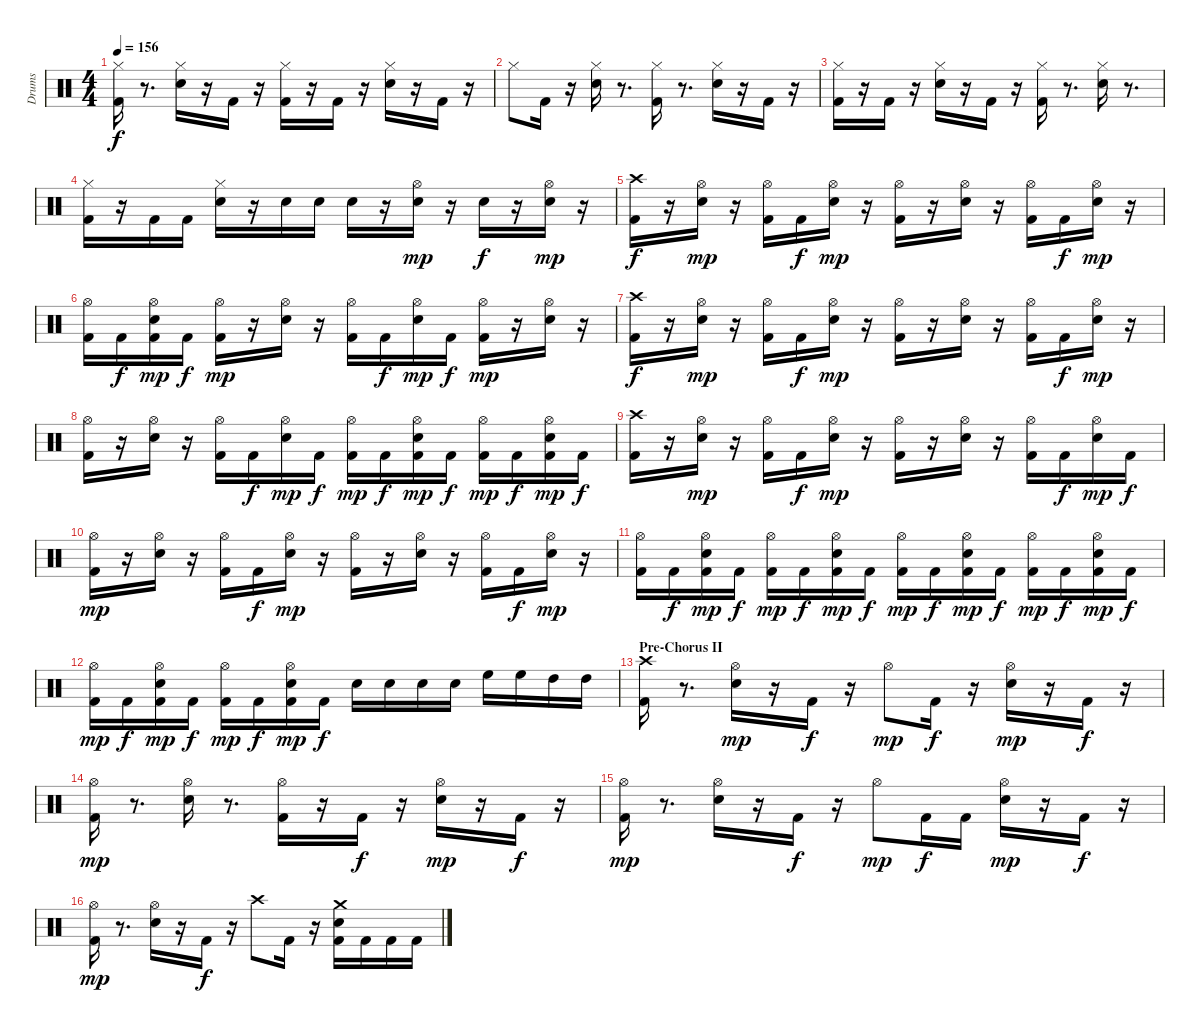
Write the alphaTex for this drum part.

\track ("Drums" "Drums") {instrument percussion}
\staff {score}
\articulation defaults
\ts (4 4)
\tempo 156
\clef neutral
\ks c
("Kick (hit) 2" "Hi-Hat (closed)").16{dy f} r.8{d} ("Snare (hit) 2" "Hi-Hat (closed)").16 r.16 "Kick (hit) 2".16 r.16 ("Kick (hit) 2" "Hi-Hat (closed)").16 r.16 "Kick (hit) 2".16 r.16 ("Snare (hit) 2" "Hi-Hat (closed)").16 r.16 "Kick (hit) 2".16 r.16 |
"Hi-Hat (closed)".8 "Kick (hit) 2".16 r.16 ("Snare (hit) 2" "Hi-Hat (closed)").16 r.8{d} ("Kick (hit) 2" "Hi-Hat (closed)").16 r.8{d} ("Snare (hit) 2" "Hi-Hat (closed)").16 r.16 "Kick (hit) 2".16 r.16 |
("Kick (hit) 2" "Hi-Hat (closed)").16 r.16 "Kick (hit) 2".16 r.16 ("Snare (hit) 2" "Hi-Hat (closed)").16 r.16 "Kick (hit) 2".16 r.16 ("Kick (hit) 2" "Hi-Hat (closed)").16 r.8{d} ("Snare (hit) 2" "Hi-Hat (closed)").16 r.8{d} |
("Kick (hit) 2" "Hi-Hat (closed)").16 r.16 "Kick (hit) 2".16 "Kick (hit) 2".16 ("Snare (hit) 2" "Hi-Hat (closed)").16 r.16 "Snare (hit) 2".16 "Snare (hit) 2".16 "Snare (hit) 2".16 r.16 ("Snare (hit) 2" "Hi-Hat (open)").16{dy mp} r.16 "Snare (hit) 2".16{dy f} r.16 ("Snare (hit) 2" "Hi-Hat (open)").16{dy mp} r.16 |
("Kick (hit) 2" "Crash high (hit)").16{dy f} r.16 ("Snare (hit) 2" "Hi-Hat (open)").16{dy mp} r.16 ("Kick (hit) 2" "Hi-Hat (open)").16 "Kick (hit) 2".16{dy f} ("Snare (hit) 2" "Hi-Hat (open)").16{dy mp} r.16 ("Kick (hit) 2" "Hi-Hat (open)").16 r.16 ("Snare (hit) 2" "Hi-Hat (open)").16 r.16 ("Kick (hit) 2" "Hi-Hat (open)").16 "Kick (hit) 2".16{dy f} ("Snare (hit) 2" "Hi-Hat (open)").16{dy mp} r.16 |
("Kick (hit) 2" "Hi-Hat (open)").16 "Kick (hit) 2".16{dy f} ("Snare (hit) 2" "Kick (hit) 2" "Hi-Hat (open)").16{dy mp} "Kick (hit) 2".16{dy f} ("Kick (hit) 2" "Hi-Hat (open)").16{dy mp} r.16 ("Snare (hit) 2" "Hi-Hat (open)").16 r.16 ("Kick (hit) 2" "Hi-Hat (open)").16 "Kick (hit) 2".16{dy f} ("Snare (hit) 2" "Hi-Hat (open)").16{dy mp} "Kick (hit) 2".16{dy f} ("Kick (hit) 2" "Hi-Hat (open)").16{dy mp} r.16 ("Snare (hit) 2" "Hi-Hat (open)").16 r.16 |
("Kick (hit) 2" "Crash high (hit)").16{dy f} r.16 ("Snare (hit) 2" "Hi-Hat (open)").16{dy mp} r.16 ("Kick (hit) 2" "Hi-Hat (open)").16 "Kick (hit) 2".16{dy f} ("Snare (hit) 2" "Hi-Hat (open)").16{dy mp} r.16 ("Kick (hit) 2" "Hi-Hat (open)").16 r.16 ("Snare (hit) 2" "Hi-Hat (open)").16 r.16 ("Kick (hit) 2" "Hi-Hat (open)").16 "Kick (hit) 2".16{dy f} ("Snare (hit) 2" "Hi-Hat (open)").16{dy mp} r.16 |
("Kick (hit) 2" "Hi-Hat (open)").16 r.16 ("Snare (hit) 2" "Hi-Hat (open)").16 r.16 ("Kick (hit) 2" "Hi-Hat (open)").16 "Kick (hit) 2".16{dy f} ("Snare (hit) 2" "Hi-Hat (open)").16{dy mp} "Kick (hit) 2".16{dy f} ("Kick (hit) 2" "Hi-Hat (open)").16{dy mp} "Kick (hit) 2".16{dy f} ("Snare (hit) 2" "Kick (hit) 2" "Hi-Hat (open)").16{dy mp} "Kick (hit) 2".16{dy f} ("Kick (hit) 2" "Hi-Hat (open)").16{dy mp} "Kick (hit) 2".16{dy f} ("Snare (hit) 2" "Kick (hit) 2" "Hi-Hat (open)").16{dy mp} "Kick (hit) 2".16{dy f} |
("Kick (hit) 2" "Crash high (hit)").16 r.16 ("Snare (hit) 2" "Hi-Hat (open)").16{dy mp} r.16 ("Kick (hit) 2" "Hi-Hat (open)").16 "Kick (hit) 2".16{dy f} ("Snare (hit) 2" "Hi-Hat (open)").16{dy mp} r.16 ("Kick (hit) 2" "Hi-Hat (open)").16 r.16 ("Snare (hit) 2" "Hi-Hat (open)").16 r.16 ("Kick (hit) 2" "Hi-Hat (open)").16 "Kick (hit) 2".16{dy f} ("Snare (hit) 2" "Hi-Hat (open)").16{dy mp} "Kick (hit) 2".16{dy f} |
("Kick (hit) 2" "Hi-Hat (open)").16{dy mp} r.16 ("Snare (hit) 2" "Hi-Hat (open)").16 r.16 ("Kick (hit) 2" "Hi-Hat (open)").16 "Kick (hit) 2".16{dy f} ("Snare (hit) 2" "Hi-Hat (open)").16{dy mp} r.16 ("Kick (hit) 2" "Hi-Hat (open)").16 r.16 ("Snare (hit) 2" "Hi-Hat (open)").16 r.16 ("Kick (hit) 2" "Hi-Hat (open)").16 "Kick (hit) 2".16{dy f} ("Snare (hit) 2" "Hi-Hat (open)").16{dy mp} r.16 |
("Kick (hit) 2" "Hi-Hat (open)").16 "Kick (hit) 2".16{dy f} ("Snare (hit) 2" "Kick (hit) 2" "Hi-Hat (open)").16{dy mp} "Kick (hit) 2".16{dy f} ("Kick (hit) 2" "Hi-Hat (open)").16{dy mp} "Kick (hit) 2".16{dy f} ("Snare (hit) 2" "Kick (hit) 2" "Hi-Hat (open)").16{dy mp} "Kick (hit) 2".16{dy f} ("Kick (hit) 2" "Hi-Hat (open)").16{dy mp} "Kick (hit) 2".16{dy f} ("Snare (hit) 2" "Kick (hit) 2" "Hi-Hat (open)").16{dy mp} "Kick (hit) 2".16{dy f} ("Kick (hit) 2" "Hi-Hat (open)").16{dy mp} "Kick (hit) 2".16{dy f} ("Snare (hit) 2" "Kick (hit) 2" "Hi-Hat (open)").16{dy mp} "Kick (hit) 2".16{dy f} |
("Kick (hit) 2" "Hi-Hat (open)").16{dy mp} "Kick (hit) 2".16{dy f} ("Snare (hit) 2" "Kick (hit) 2" "Hi-Hat (open)").16{dy mp} "Kick (hit) 2".16{dy f} ("Kick (hit) 2" "Hi-Hat (open)").16{dy mp} "Kick (hit) 2".16{dy f} ("Snare (hit) 2" "Kick (hit) 2" "Hi-Hat (open)").16{dy mp} "Kick (hit) 2".16{dy f} "Snare (hit) 2".16 "Snare (hit) 2".16 "Snare (hit) 2".16 "Snare (hit) 2".16 "High Floor Tom (hit)".16 "High Floor Tom (hit)".16 "High Tom (hit)".16 "High Tom (hit)".16 |
\section ("" "Pre-Chorus II")
("Kick (hit) 2" "Crash high (hit)").16 r.8{d} ("Snare (hit) 2" "Hi-Hat (open)").16{dy mp} r.16 "Kick (hit) 2".16{dy f} r.16 "Hi-Hat (open)".8{dy mp} "Kick (hit) 2".16{dy f} r.16 ("Snare (hit) 2" "Hi-Hat (open)").16{dy mp} r.16 "Kick (hit) 2".16{dy f} r.16 |
("Kick (hit) 2" "Hi-Hat (open)").16{dy mp} r.8{d} ("Snare (hit) 2" "Hi-Hat (open)").16 r.8{d} ("Kick (hit) 2" "Hi-Hat (open)").16 r.16 "Kick (hit) 2".16{dy f} r.16 ("Snare (hit) 2" "Hi-Hat (open)").16{dy mp} r.16 "Kick (hit) 2".16{dy f} r.16 |
("Kick (hit) 2" "Hi-Hat (open)").16{dy mp} r.8{d} ("Snare (hit) 2" "Hi-Hat (open)").16 r.16 "Kick (hit) 2".16{dy f} r.16 "Hi-Hat (open)".8{dy mp} "Kick (hit) 2".16{dy f} "Kick (hit) 2".16 ("Snare (hit) 2" "Hi-Hat (open)").16{dy mp} r.16 "Kick (hit) 2".16{dy f} r.16 |
("Kick (hit) 2" "Hi-Hat (open)").16{dy mp} r.8{d} ("Snare (hit) 2" "Hi-Hat (open)").16 r.16 "Kick (hit) 2".16{dy f} r.16 "Crash high (hit)".8 "Kick (hit) 2".16 r.16 ("Snare (hit) 2" "Kick (hit) 2" "Crash medium (hit)").16 "Kick (hit) 2".16 "Kick (hit) 2".16 "Kick (hit) 2".16
